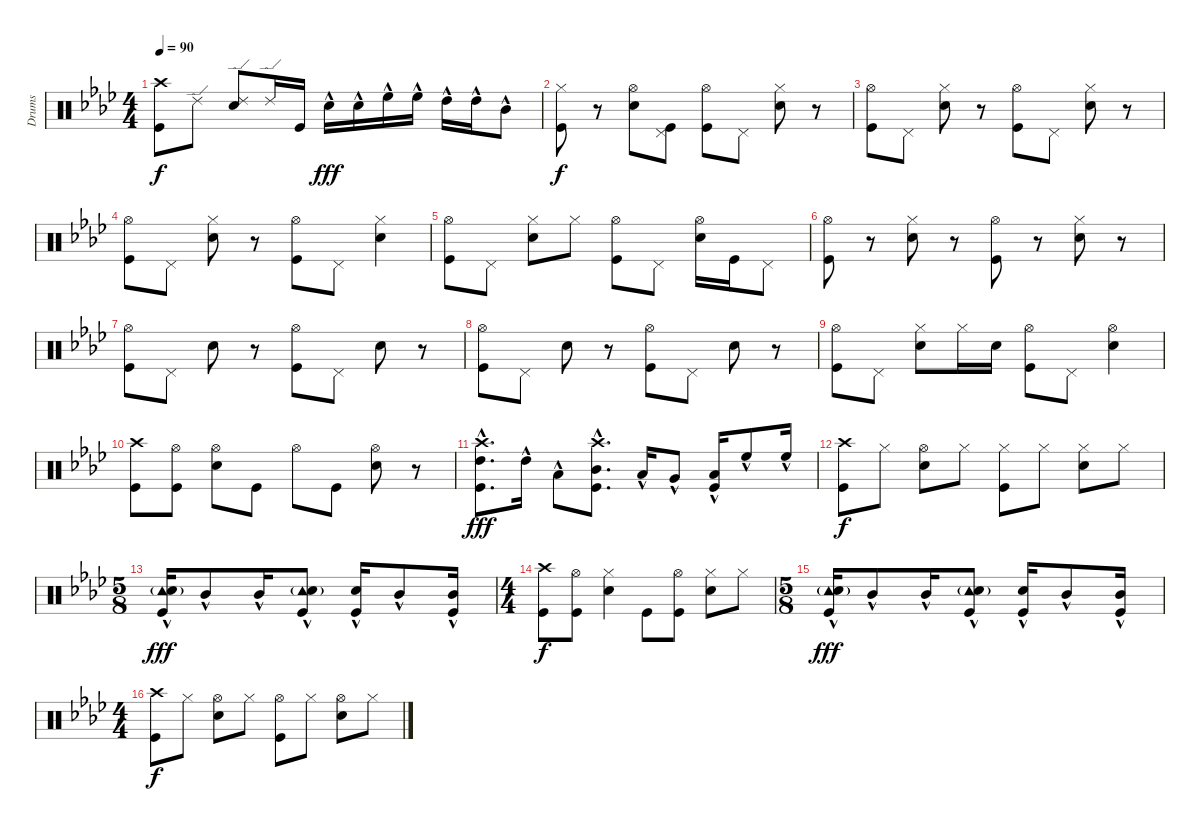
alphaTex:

\track ("Drums" "Drums") {instrument percussion}
\staff {score}
\articulation defaults
\ts (4 4)
\tempo 90
\clef neutral
\ks ab
("Crash high (hit)" "Kick (hit)").8{dy f} "Ride (edge) 2".8 ("Ride (edge) 2" "Snare (hit) 2").8 "Ride (edge) 2".16 "Kick (hit)".16 "Snare (hit) 2"{hac}.16{dy fff} "Snare (hit) 2"{hac}.16 "High Floor Tom (hit)"{hac}.16 "High Floor Tom (hit)"{hac}.16 "High Tom (hit)"{hac}.16 "High Tom (hit)"{hac}.16 "Mid Tom (hit)"{hac}.8 |
("Hi-Hat (closed)" "Kick (hit)").8{dy f} r.8 ("Hi-Hat (open)" "Snare (hit) 2").8 ("Pedal Hi-Hat (hit)" "Kick (hit)").8 ("Hi-Hat (open)" "Kick (hit)").8 "Pedal Hi-Hat (hit)".8 ("Hi-Hat (closed)" "Snare (hit) 2").8 r.8 |
("Hi-Hat (open)" "Kick (hit)").8 "Pedal Hi-Hat (hit)".8 ("Hi-Hat (closed)" "Snare (hit) 2").8 r.8 ("Hi-Hat (open)" "Kick (hit)").8 "Pedal Hi-Hat (hit)".8 ("Hi-Hat (closed)" "Snare (hit) 2").8 r.8 |
("Hi-Hat (open)" "Kick (hit)").8 "Pedal Hi-Hat (hit)".8 ("Hi-Hat (closed)" "Snare (hit) 2").8 r.8 ("Hi-Hat (open)" "Kick (hit)").8 "Pedal Hi-Hat (hit)".8 ("Hi-Hat (closed)" "Snare (hit) 2").4 |
("Hi-Hat (open)" "Kick (hit)").8 "Pedal Hi-Hat (hit)".8 ("Hi-Hat (closed)" "Snare (hit) 2").8 "Hi-Hat (closed)".8 ("Hi-Hat (open)" "Kick (hit)").8 "Pedal Hi-Hat (hit)".8 ("Hi-Hat (open)" "Snare (hit) 2").16 "Kick (hit)".16 "Pedal Hi-Hat (hit)".8 |
("Hi-Hat (open)" "Kick (hit)").8 r.8 ("Hi-Hat (closed)" "Snare (hit) 2").8 r.8 ("Hi-Hat (open)" "Kick (hit)").8 r.8 ("Hi-Hat (closed)" "Snare (hit) 2").8 r.8 |
("Hi-Hat (open)" "Kick (hit)").8 "Pedal Hi-Hat (hit)".8 "Snare (hit) 2".8 r.8 ("Hi-Hat (open)" "Kick (hit)").8 "Pedal Hi-Hat (hit)".8 "Snare (hit) 2".8 r.8 |
("Hi-Hat (open)" "Kick (hit)").8 "Pedal Hi-Hat (hit)".8 "Snare (hit) 2".8 r.8 ("Hi-Hat (open)" "Kick (hit)").8 "Pedal Hi-Hat (hit)".8 "Snare (hit) 2".8 r.8 |
("Hi-Hat (open)" "Kick (hit)").8 "Pedal Hi-Hat (hit)".8 ("Hi-Hat (closed)" "Snare (hit) 2").8 "Hi-Hat (closed)".16 "Snare (hit) 2".16 ("Hi-Hat (open)" "Kick (hit)").8 "Pedal Hi-Hat (hit)".8 ("Hi-Hat (open)" "Snare (hit) 2").4 |
("Crash high (hit)" "Kick (hit)").8 ("Hi-Hat (open)" "Kick (hit)").8 ("Hi-Hat (open)" "Snare (hit) 2").8 "Kick (hit)".8 "Hi-Hat (open)".8 "Kick (hit)".8 ("Hi-Hat (open)" "Snare (hit) 2").8 r.8 |
("Crash high (hit)"{hac} "High Tom (hit)"{hac} "Kick (hit)"{hac}).8{d dy fff} "High Tom (hit)"{hac}.16 "Low Tom (hit)"{hac}.8 ("Crash high (hit)" "Mid Tom (hit)"{hac} "Kick (hit)").8{d} "Low Tom (hit)"{hac}.16 "Very Low Tom (hit)"{hac}.8 ("Low Tom (hit)"{hac} "Kick (hit)").16 "High Floor Tom (hit)"{hac}.8 "High Floor Tom (hit)"{hac}.16 |
("Crash high (hit)" "Kick (hit)").8{dy f} "Hi-Hat (closed)".8 ("Hi-Hat (open)" "Snare (hit) 2").8 "Hi-Hat (closed)".8 ("Hi-Hat (closed)" "Kick (hit)").8 "Hi-Hat (closed)".8 ("Hi-Hat (closed)" "Snare (hit) 2").8 "Hi-Hat (closed)".8 |
\ts (5 8)
("Tambourine (hit)"{g} "Snare (hit) 2"{hac} "Kick (hit)"{hac}).16{dy fff} "Mid Tom (hit)"{hac}.8 "Mid Tom (hit)"{hac}.16 ("Tambourine (hit)"{g} "Snare (hit) 2"{hac} "Kick (hit)"{hac}).8 ("Snare (hit) 2"{hac} "Kick (hit)"{hac}).16 "Mid Tom (hit)"{hac}.8 ("Mid Tom (hit)"{hac} "Kick (hit)"{hac}).16 |
\ts (4 4)
("Crash high (hit)" "Kick (hit)").8{dy f} ("Hi-Hat (open)" "Kick (hit)").8 ("Hi-Hat (closed)" "Snare (hit) 2").4 "Kick (hit)".8 ("Hi-Hat (open)" "Kick (hit)").8 ("Hi-Hat (closed)" "Snare (hit) 2").8 "Hi-Hat (closed)".8 |
\ts (5 8)
("Tambourine (hit)"{g} "Snare (hit) 2"{hac} "Kick (hit)"{hac}).16{dy fff} "Mid Tom (hit)"{hac}.8 "Mid Tom (hit)"{hac}.16 ("Tambourine (hit)"{g} "Snare (hit) 2"{hac} "Kick (hit)"{hac}).8 ("Snare (hit) 2"{hac} "Kick (hit)"{hac}).16 "Mid Tom (hit)"{hac}.8 ("Mid Tom (hit)"{hac} "Kick (hit)"{hac}).16 |
\ts (4 4)
("Crash high (hit)" "Kick (hit)").8{dy f} "Hi-Hat (closed)".8 ("Hi-Hat (open)" "Snare (hit) 2").8 "Hi-Hat (closed)".8 ("Hi-Hat (open)" "Kick (hit)").8 "Hi-Hat (closed)".8 ("Hi-Hat (open)" "Snare (hit) 2").8 "Hi-Hat (closed)".8
